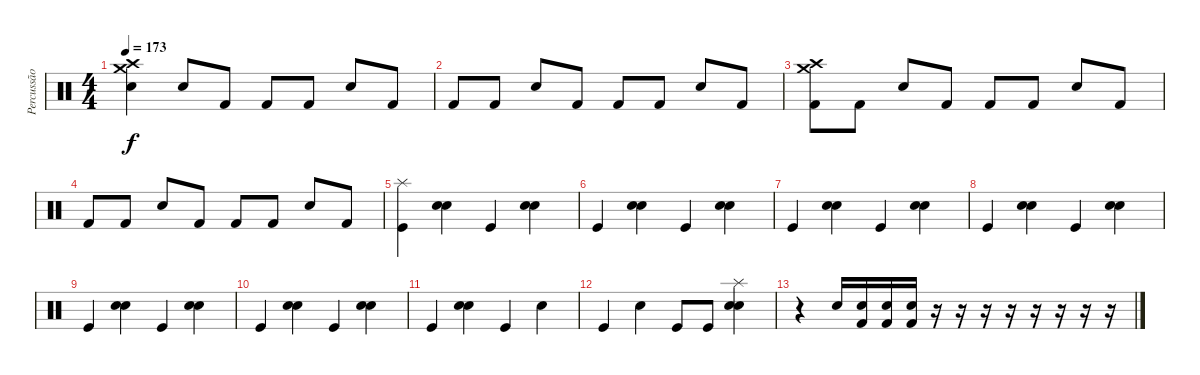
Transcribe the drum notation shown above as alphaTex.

\track ("Percussão" "Percussão") {instrument percussion}
\staff {score}
\articulation defaults
\ts (4 4)
\tempo 173
\clef neutral
\ks c
("Crash high (hit)" "Crash medium (hit)" "Snare (hit) 2").4{dy f} "Snare (hit) 2".8 "Kick (hit) 2".8 "Kick (hit) 2".8 "Kick (hit) 2".8 "Snare (hit) 2".8 "Kick (hit) 2".8 |
"Kick (hit) 2".8 "Kick (hit) 2".8 "Snare (hit) 2".8 "Kick (hit) 2".8 "Kick (hit) 2".8 "Kick (hit) 2".8 "Snare (hit) 2".8 "Kick (hit) 2".8 |
("Crash high (hit)" "Kick (hit) 2" "Crash medium (hit)").8 "Kick (hit) 2".8 "Snare (hit) 2".8 "Kick (hit) 2".8 "Kick (hit) 2".8 "Kick (hit) 2".8 "Snare (hit) 2".8 "Kick (hit) 2".8 |
"Kick (hit) 2".8 "Kick (hit) 2".8 "Snare (hit) 2".8 "Kick (hit) 2".8 "Kick (hit) 2".8 "Kick (hit) 2".8 "Snare (hit) 2".8 "Kick (hit) 2".8 |
("Kick (hit)" "Splash (hit)").4 ("Snare (hit) 2" "Electric Snare (hit)").4 "Kick (hit)".4 ("Snare (hit) 2" "Electric Snare (hit)").4 |
"Kick (hit)".4 ("Snare (hit) 2" "Electric Snare (hit)").4 "Kick (hit)".4 ("Snare (hit) 2" "Electric Snare (hit)").4 |
"Kick (hit)".4 ("Snare (hit) 2" "Electric Snare (hit)").4 "Kick (hit)".4 ("Snare (hit) 2" "Electric Snare (hit)").4 |
"Kick (hit)".4 ("Snare (hit) 2" "Electric Snare (hit)").4 "Kick (hit)".4 ("Snare (hit) 2" "Electric Snare (hit)").4 |
"Kick (hit)".4 ("Snare (hit) 2" "Electric Snare (hit)").4 "Kick (hit)".4 ("Snare (hit) 2" "Electric Snare (hit)").4 |
"Kick (hit)".4 ("Snare (hit) 2" "Electric Snare (hit)").4 "Kick (hit)".4 ("Snare (hit) 2" "Electric Snare (hit)").4 |
"Kick (hit)".4 ("Snare (hit) 2" "Electric Snare (hit)").4 "Kick (hit)".4 "Snare (hit) 2".4 |
"Kick (hit)".4 "Snare (hit) 2".4 "Kick (hit)".8 "Kick (hit)".8 ("Snare (hit) 2" "Splash (hit)" "Electric Snare (hit)").4 |
r.4 "Snare (hit) 2".16 ("Kick (hit) 2" "Electric Snare (hit)").16 ("Kick (hit) 2" "Electric Snare (hit)").16 ("Kick (hit) 2" "Electric Snare (hit)").16 r.16 r.16 r.16 r.16 r.16 r.16 r.16 r.16
